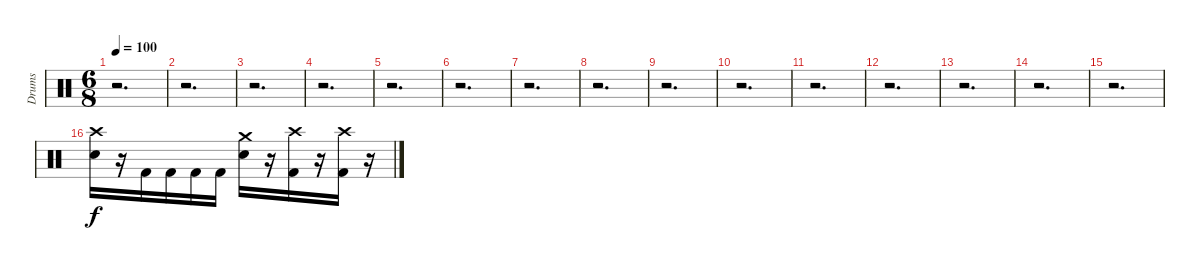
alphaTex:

\track ("Drums" "Drums") {instrument percussion}
\staff {score}
\articulation defaults
\ts (6 8)
\tempo 100
\clef neutral
\ks c
r.2{d dy f} |
r.2{d} |
r.2{d} |
r.2{d} |
r.2{d} |
r.2{d} |
r.2{d} |
r.2{d} |
r.2{d} |
r.2{d} |
r.2{d} |
r.2{d} |
r.2{d} |
r.2{d} |
r.2{d} |
("Snare (hit) 2" "Crash high (hit)").16 r.16 "Kick (hit) 2".16 "Kick (hit) 2".16 "Kick (hit) 2".16 "Kick (hit) 2".16 ("Snare (hit) 2" "Crash medium (hit)").16 r.16 ("Kick (hit) 2" "Crash high (hit)").16 r.16 ("Kick (hit) 2" "Crash high (hit)").16 r.16
